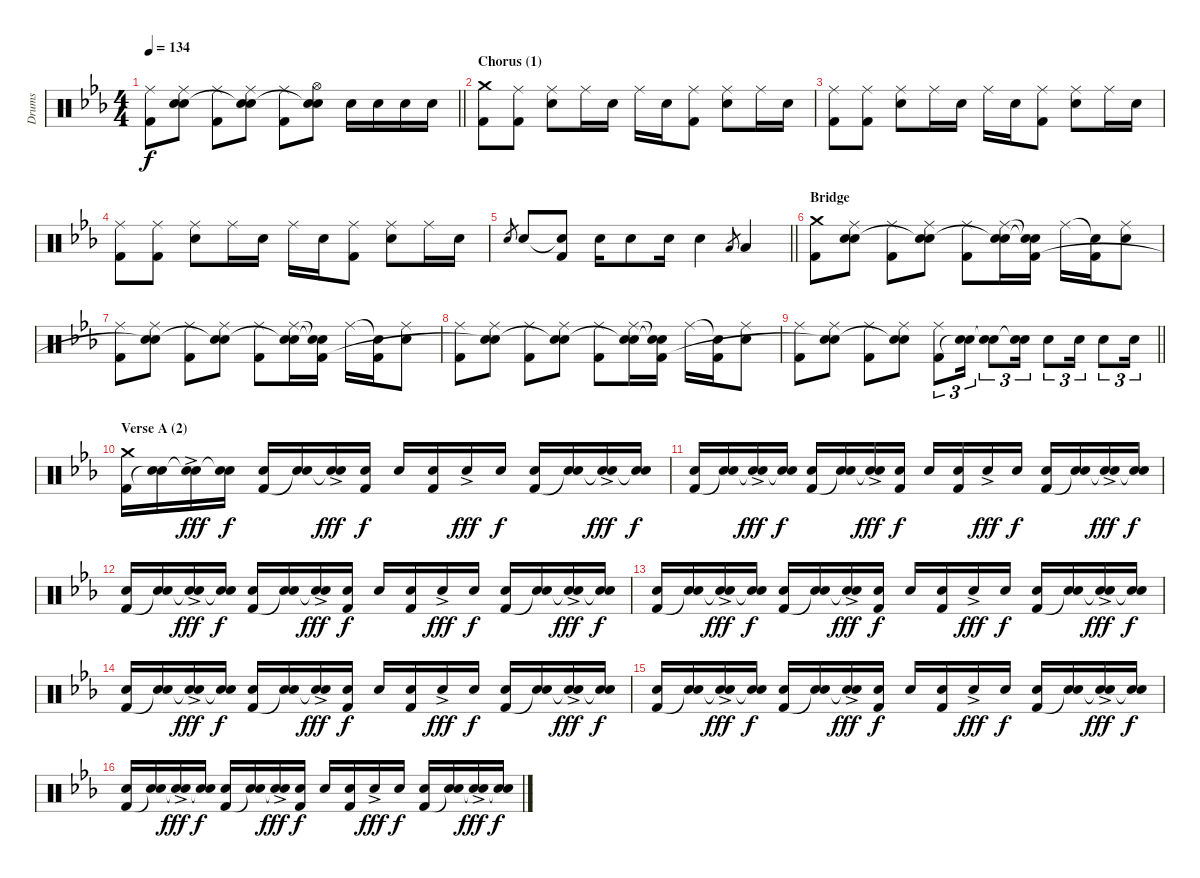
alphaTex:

\track ("Drums" "Drums") {instrument percussion}
\staff {score}
\articulation defaults
\ts (4 4)
\tempo 134
\clef neutral
\barLineRight lightlight
\ks eb
("Ride (middle)" "Kick (hit) 2").8{dy f} ("Ride (middle)" "Electric Snare (hit)" "Snare (hit)"{t}).8 ("Ride (middle)" "Kick (hit) 2").8 ("Ride (middle)" "Electric Snare (hit)" "Snare (hit)"{t}).8 ("Ride (middle)" "Kick (hit) 2").8 ("Hi-Hat (open)" "Electric Snare (hit)" "Snare (hit)"{t}).8 "Electric Snare (hit)".16 "Electric Snare (hit)".16 "Electric Snare (hit)".16 "Electric Snare (hit)".16 |
\section ("" "Chorus (1)")
("Crash medium (hit)" "Kick (hit) 2").8 ("Ride (middle)" "Kick (hit) 2").8 ("Ride (middle)" "Electric Snare (hit)").8 "Ride (middle)".16 "Electric Snare (hit)".16 "Ride (middle)".16 "Electric Snare (hit)".16 ("Ride (middle)" "Kick (hit) 2").8 ("Ride (middle)" "Electric Snare (hit)").8 "Ride (middle)".16 "Electric Snare (hit)".16 |
("Ride (middle)" "Kick (hit) 2").8 ("Ride (middle)" "Kick (hit) 2").8 ("Ride (middle)" "Electric Snare (hit)").8 "Ride (middle)".16 "Electric Snare (hit)".16 "Ride (middle)".16 "Electric Snare (hit)".16 ("Ride (middle)" "Kick (hit) 2").8 ("Ride (middle)" "Electric Snare (hit)").8 "Ride (middle)".16 "Electric Snare (hit)".16 |
("Ride (middle)" "Kick (hit) 2").8 ("Ride (middle)" "Kick (hit) 2").8 ("Ride (middle)" "Electric Snare (hit)").8 "Ride (middle)".16 "Electric Snare (hit)".16 "Ride (middle)".16 "Electric Snare (hit)".16 ("Ride (middle)" "Kick (hit) 2").8 ("Ride (middle)" "Electric Snare (hit)").8 "Ride (middle)".16 "Electric Snare (hit)".16 |
\barLineRight lightlight "Electric Snare (hit)".8{gr} "Electric Snare (hit)".8
("Snare (hit)"{t} "Kick (hit) 2").8 "Electric Snare (hit)".16 "Electric Snare (hit)".8 "Electric Snare (hit)".16 "Electric Snare (hit)".4 "Low Floor Tom (hit)".8{gr} "Low Floor Tom (hit)".4 |
\section ("" "Bridge")
("Crash medium (hit)" "Kick (hit) 2").8 ("Ride (middle)" "Electric Snare (hit)" "Snare (hit)").8 ("Ride (middle)" "Kick (hit) 2").8 ("Ride (middle)" "Electric Snare (hit)" "Snare (hit)"{t}).8 ("Ride (middle)" "Kick (hit) 2").8 ("Ride (middle)" "Electric Snare (hit)" "Snare (hit)"{t}).16 ("Snare (hit)"{t} "Snare (hit)"{t} "Kick (hit) 2").16 "Ride (middle)".16 ("Snare (hit)"{t} "Kick (hit) 2").16 ("Ride (middle)" "Electric Snare (hit)").8 |
("Ride (middle)" "Kick (hit) 2").8 ("Ride (middle)" "Electric Snare (hit)" "Snare (hit)"{t}).8 ("Ride (middle)" "Kick (hit) 2").8 ("Ride (middle)" "Electric Snare (hit)" "Snare (hit)"{t}).8 ("Ride (middle)" "Kick (hit) 2").8 ("Ride (middle)" "Electric Snare (hit)" "Snare (hit)"{t}).16 ("Snare (hit)"{t} "Snare (hit)"{t} "Kick (hit) 2").16 "Ride (middle)".16 ("Snare (hit)"{t} "Kick (hit) 2").16 ("Ride (middle)" "Electric Snare (hit)").8 |
("Ride (middle)" "Kick (hit) 2").8 ("Ride (middle)" "Electric Snare (hit)" "Snare (hit)"{t}).8 ("Ride (middle)" "Kick (hit) 2").8 ("Ride (middle)" "Electric Snare (hit)" "Snare (hit)"{t}).8 ("Ride (middle)" "Kick (hit) 2").8 ("Ride (middle)" "Electric Snare (hit)" "Snare (hit)"{t}).16 ("Snare (hit)"{t} "Snare (hit)"{t} "Kick (hit) 2").16 "Ride (middle)".16 ("Snare (hit)"{t} "Kick (hit) 2").16 ("Ride (middle)" "Electric Snare (hit)").8 |
\barLineRight lightlight
("Ride (middle)" "Kick (hit) 2").8 ("Ride (middle)" "Electric Snare (hit)" "Snare (hit)"{t}).8 ("Ride (middle)" "Kick (hit) 2").8 ("Ride (middle)" "Electric Snare (hit)" "Snare (hit)"{t}).8 ("Ride (middle)" "Kick (hit) 2").8{tu (3 2)} ("Electric Snare (hit)" "Snare (hit)"{t}).16{tu (3 2)} ("Electric Snare (hit)" "Snare (hit)"{t}).8{tu (3 2)} ("Electric Snare (hit)" "Snare (hit)"{t}).16{tu (3 2)} "Electric Snare (hit)".8{tu (3 2)} "Electric Snare (hit)".16{tu (3 2)} "Electric Snare (hit)".8{tu (3 2)} "Electric Snare (hit)".16{tu (3 2)} |
\section ("" "Verse A (2)")
("Crash medium (hit)" "Kick (hit) 2").16 ("Electric Snare (hit)" "Snare (hit)"{t}).16 ("Electric Snare (hit)"{ac} "Snare (hit)"{t}).16{dy fff} ("Electric Snare (hit)" "Snare (hit)"{t}).16{dy f} ("Electric Snare (hit)" "Kick (hit) 2").16 ("Electric Snare (hit)" "Snare (hit)"{t}).16 ("Electric Snare (hit)"{ac} "Snare (hit)"{t}).16{dy fff} ("Electric Snare (hit)" "Kick (hit) 2").16{dy f} "Electric Snare (hit)".16 ("Electric Snare (hit)" "Kick (hit) 2").16 "Electric Snare (hit)"{ac}.16{dy fff} "Electric Snare (hit)".16{dy f} ("Electric Snare (hit)" "Kick (hit) 2").16 ("Electric Snare (hit)" "Snare (hit)"{t}).16 ("Electric Snare (hit)"{ac} "Snare (hit)"{t}).16{dy fff} ("Electric Snare (hit)" "Snare (hit)"{t}).16{dy f} |
("Electric Snare (hit)" "Kick (hit) 2").16 ("Electric Snare (hit)" "Snare (hit)"{t}).16 ("Electric Snare (hit)"{ac} "Snare (hit)"{t}).16{dy fff} ("Electric Snare (hit)" "Snare (hit)"{t}).16{dy f} ("Electric Snare (hit)" "Kick (hit) 2").16 ("Electric Snare (hit)" "Snare (hit)"{t}).16 ("Electric Snare (hit)"{ac} "Snare (hit)"{t}).16{dy fff} ("Electric Snare (hit)" "Kick (hit) 2").16{dy f} "Electric Snare (hit)".16 ("Electric Snare (hit)" "Kick (hit) 2").16 "Electric Snare (hit)"{ac}.16{dy fff} "Electric Snare (hit)".16{dy f} ("Electric Snare (hit)" "Kick (hit) 2").16 ("Electric Snare (hit)" "Snare (hit)"{t}).16 ("Electric Snare (hit)"{ac} "Snare (hit)"{t}).16{dy fff} ("Electric Snare (hit)" "Snare (hit)"{t}).16{dy f} |
("Electric Snare (hit)" "Kick (hit) 2").16 ("Electric Snare (hit)" "Snare (hit)"{t}).16 ("Electric Snare (hit)"{ac} "Snare (hit)"{t}).16{dy fff} ("Electric Snare (hit)" "Snare (hit)"{t}).16{dy f} ("Electric Snare (hit)" "Kick (hit) 2").16 ("Electric Snare (hit)" "Snare (hit)"{t}).16 ("Electric Snare (hit)"{ac} "Snare (hit)"{t}).16{dy fff} ("Electric Snare (hit)" "Kick (hit) 2").16{dy f} "Electric Snare (hit)".16 ("Electric Snare (hit)" "Kick (hit) 2").16 "Electric Snare (hit)"{ac}.16{dy fff} "Electric Snare (hit)".16{dy f} ("Electric Snare (hit)" "Kick (hit) 2").16 ("Electric Snare (hit)" "Snare (hit)"{t}).16 ("Electric Snare (hit)"{ac} "Snare (hit)"{t}).16{dy fff} ("Electric Snare (hit)" "Snare (hit)"{t}).16{dy f} |
("Electric Snare (hit)" "Kick (hit) 2").16 ("Electric Snare (hit)" "Snare (hit)"{t}).16 ("Electric Snare (hit)"{ac} "Snare (hit)"{t}).16{dy fff} ("Electric Snare (hit)" "Snare (hit)"{t}).16{dy f} ("Electric Snare (hit)" "Kick (hit) 2").16 ("Electric Snare (hit)" "Snare (hit)"{t}).16 ("Electric Snare (hit)"{ac} "Snare (hit)"{t}).16{dy fff} ("Electric Snare (hit)" "Kick (hit) 2").16{dy f} "Electric Snare (hit)".16 ("Electric Snare (hit)" "Kick (hit) 2").16 "Electric Snare (hit)"{ac}.16{dy fff} "Electric Snare (hit)".16{dy f} ("Electric Snare (hit)" "Kick (hit) 2").16 ("Electric Snare (hit)" "Snare (hit)"{t}).16 ("Electric Snare (hit)"{ac} "Snare (hit)"{t}).16{dy fff} ("Electric Snare (hit)" "Snare (hit)"{t}).16{dy f} |
("Electric Snare (hit)" "Kick (hit) 2").16 ("Electric Snare (hit)" "Snare (hit)"{t}).16 ("Electric Snare (hit)"{ac} "Snare (hit)"{t}).16{dy fff} ("Electric Snare (hit)" "Snare (hit)"{t}).16{dy f} ("Electric Snare (hit)" "Kick (hit) 2").16 ("Electric Snare (hit)" "Snare (hit)"{t}).16 ("Electric Snare (hit)"{ac} "Snare (hit)"{t}).16{dy fff} ("Electric Snare (hit)" "Kick (hit) 2").16{dy f} "Electric Snare (hit)".16 ("Electric Snare (hit)" "Kick (hit) 2").16 "Electric Snare (hit)"{ac}.16{dy fff} "Electric Snare (hit)".16{dy f} ("Electric Snare (hit)" "Kick (hit) 2").16 ("Electric Snare (hit)" "Snare (hit)"{t}).16 ("Electric Snare (hit)"{ac} "Snare (hit)"{t}).16{dy fff} ("Electric Snare (hit)" "Snare (hit)"{t}).16{dy f} |
("Electric Snare (hit)" "Kick (hit) 2").16 ("Electric Snare (hit)" "Snare (hit)"{t}).16 ("Electric Snare (hit)"{ac} "Snare (hit)"{t}).16{dy fff} ("Electric Snare (hit)" "Snare (hit)"{t}).16{dy f} ("Electric Snare (hit)" "Kick (hit) 2").16 ("Electric Snare (hit)" "Snare (hit)"{t}).16 ("Electric Snare (hit)"{ac} "Snare (hit)"{t}).16{dy fff} ("Electric Snare (hit)" "Kick (hit) 2").16{dy f} "Electric Snare (hit)".16 ("Electric Snare (hit)" "Kick (hit) 2").16 "Electric Snare (hit)"{ac}.16{dy fff} "Electric Snare (hit)".16{dy f} ("Electric Snare (hit)" "Kick (hit) 2").16 ("Electric Snare (hit)" "Snare (hit)"{t}).16 ("Electric Snare (hit)"{ac} "Snare (hit)"{t}).16{dy fff} ("Electric Snare (hit)" "Snare (hit)"{t}).16{dy f} |
("Electric Snare (hit)" "Kick (hit) 2").16 ("Electric Snare (hit)" "Snare (hit)"{t}).16 ("Electric Snare (hit)"{ac} "Snare (hit)"{t}).16{dy fff} ("Electric Snare (hit)" "Snare (hit)"{t}).16{dy f} ("Electric Snare (hit)" "Kick (hit) 2").16 ("Electric Snare (hit)" "Snare (hit)"{t}).16 ("Electric Snare (hit)"{ac} "Snare (hit)"{t}).16{dy fff} ("Electric Snare (hit)" "Kick (hit) 2").16{dy f} "Electric Snare (hit)".16 ("Electric Snare (hit)" "Kick (hit) 2").16 "Electric Snare (hit)"{ac}.16{dy fff} "Electric Snare (hit)".16{dy f} ("Electric Snare (hit)" "Kick (hit) 2").16 ("Electric Snare (hit)" "Snare (hit)"{t}).16 ("Electric Snare (hit)"{ac} "Snare (hit)"{t}).16{dy fff} ("Electric Snare (hit)" "Snare (hit)"{t}).16{dy f}
